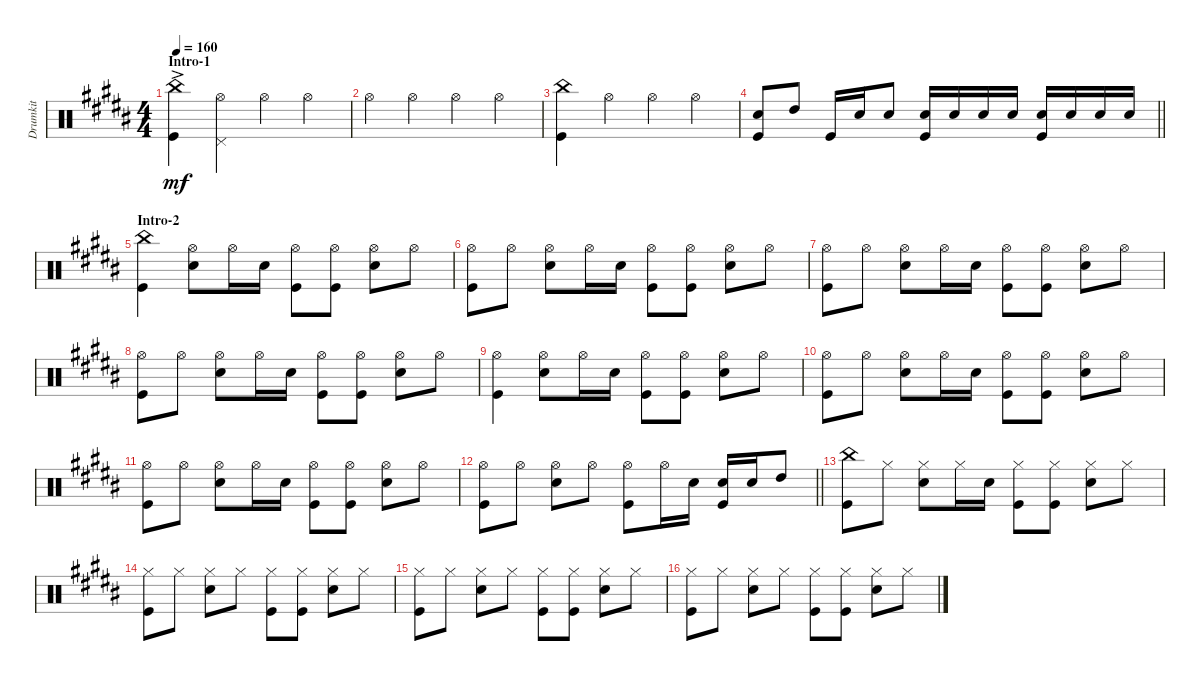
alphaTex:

\track ("Drumkit" "Drumkit") {instrument percussion}
\staff {score}
\articulation defaults
\ts (4 4)
\section ("" "Intro-1")
\tempo 160
\clef neutral
\ks b
("Kick (hit)" "China (hit)"{ac}).4{dy mf} ("Pedal Hi-Hat (hit)" "Hi-Hat (open)").4 "Hi-Hat (open)".4 "Hi-Hat (open)".4 |
"Hi-Hat (open)".4 "Hi-Hat (open)".4 "Hi-Hat (open)".4 "Hi-Hat (open)".4 |
("China (hit)" "Kick (hit)").4 "Hi-Hat (open)".4 "Hi-Hat (open)".4 "Hi-Hat (open)".4 |
\barLineRight lightlight
("Snare (hit) 2" "Kick (hit)").8 "High Tom (hit)".8 "Kick (hit)".16 "Snare (hit) 2".16 "Snare (hit) 2".8 ("Snare (hit) 2" "Kick (hit)").16 "Snare (hit) 2".16 "Snare (hit) 2".16 "Snare (hit) 2".16 ("Snare (hit) 2" "Kick (hit)").16 "Snare (hit) 2".16 "Snare (hit) 2".16 "Snare (hit) 2".16 |
\section ("" "Intro-2")
("Kick (hit)" "China (hit)").4 ("Hi-Hat (open)" "Snare (hit) 2").8 "Hi-Hat (open)".16 "Snare (hit) 2".16 ("Hi-Hat (open)" "Kick (hit)").8 ("Kick (hit)" "Hi-Hat (open)").8 ("Hi-Hat (open)" "Snare (hit) 2").8 "Hi-Hat (open)".8 |
("Hi-Hat (open)" "Kick (hit)").8 "Hi-Hat (open)".8 ("Hi-Hat (open)" "Snare (hit) 2").8 "Hi-Hat (open)".16 "Snare (hit) 2".16 ("Hi-Hat (open)" "Kick (hit)").8 ("Kick (hit)" "Hi-Hat (open)").8 ("Hi-Hat (open)" "Snare (hit) 2").8 "Hi-Hat (open)".8 |
("Hi-Hat (open)" "Kick (hit)").8 "Hi-Hat (open)".8 ("Hi-Hat (open)" "Snare (hit) 2").8 "Hi-Hat (open)".16 "Snare (hit) 2".16 ("Hi-Hat (open)" "Kick (hit)").8 ("Kick (hit)" "Hi-Hat (open)").8 ("Hi-Hat (open)" "Snare (hit) 2").8 "Hi-Hat (open)".8 |
("Hi-Hat (open)" "Kick (hit)").8 "Hi-Hat (open)".8 ("Hi-Hat (open)" "Snare (hit) 2").8 "Hi-Hat (open)".16 "Snare (hit) 2".16 ("Hi-Hat (open)" "Kick (hit)").8 ("Kick (hit)" "Hi-Hat (open)").8 ("Hi-Hat (open)" "Snare (hit) 2").8 "Hi-Hat (open)".8 |
("Hi-Hat (open)" "Kick (hit)").4 ("Snare (hit) 2" "Hi-Hat (open)").8 "Hi-Hat (open)".16 "Snare (hit) 2".16 ("Hi-Hat (open)" "Kick (hit)").8 ("Hi-Hat (open)" "Kick (hit)").8 ("Snare (hit) 2" "Hi-Hat (open)").8 "Hi-Hat (open)".8 |
("Kick (hit)" "Hi-Hat (open)").8 "Hi-Hat (open)".8 ("Hi-Hat (open)" "Snare (hit) 2").8 "Hi-Hat (open)".16 "Snare (hit) 2".16 ("Hi-Hat (open)" "Kick (hit)").8 ("Kick (hit)" "Hi-Hat (open)").8 ("Hi-Hat (open)" "Snare (hit) 2").8 "Hi-Hat (open)".8 |
("Kick (hit)" "Hi-Hat (open)").8 "Hi-Hat (open)".8 ("Hi-Hat (open)" "Snare (hit) 2").8 "Hi-Hat (open)".16 "Snare (hit) 2".16 ("Hi-Hat (open)" "Kick (hit)").8 ("Kick (hit)" "Hi-Hat (open)").8 ("Hi-Hat (open)" "Snare (hit) 2").8 "Hi-Hat (open)".8 |
\barLineRight lightlight
("Hi-Hat (open)" "Kick (hit)").8 "Hi-Hat (open)".8 ("Hi-Hat (open)" "Snare (hit) 2").8 "Hi-Hat (open)".8 ("Hi-Hat (open)" "Kick (hit)").8 "Hi-Hat (open)".16 "Snare (hit) 2".16 ("Snare (hit) 2" "Kick (hit)").16 "Snare (hit) 2".16 "High Tom (hit)".8 |
\section ("" "")
("Kick (hit)" "China (hit)").8 "Hi-Hat (closed)".8 ("Hi-Hat (closed)" "Snare (hit) 2").8 "Hi-Hat (closed)".16 "Snare (hit) 2".16 ("Hi-Hat (closed)" "Kick (hit)").8 ("Kick (hit)" "Hi-Hat (closed)").8 ("Hi-Hat (closed)" "Snare (hit) 2").8 "Hi-Hat (closed)".8 |
("Hi-Hat (closed)" "Kick (hit)").8 "Hi-Hat (closed)".8 ("Hi-Hat (closed)" "Snare (hit) 2").8 "Hi-Hat (closed)".8 ("Hi-Hat (closed)" "Kick (hit)").8 ("Kick (hit)" "Hi-Hat (closed)").8 ("Hi-Hat (closed)" "Snare (hit) 2").8 "Hi-Hat (closed)".8 |
("Hi-Hat (closed)" "Kick (hit)").8 "Hi-Hat (closed)".8 ("Hi-Hat (closed)" "Snare (hit) 2").8 "Hi-Hat (closed)".8 ("Hi-Hat (closed)" "Kick (hit)").8 ("Kick (hit)" "Hi-Hat (closed)").8 ("Hi-Hat (closed)" "Snare (hit) 2").8 "Hi-Hat (closed)".8 |
("Hi-Hat (closed)" "Kick (hit)").8 "Hi-Hat (closed)".8 ("Hi-Hat (closed)" "Snare (hit) 2").8 "Hi-Hat (closed)".8 ("Hi-Hat (closed)" "Kick (hit)").8 ("Kick (hit)" "Hi-Hat (closed)").8 ("Hi-Hat (closed)" "Snare (hit) 2").8 "Hi-Hat (closed)".8
